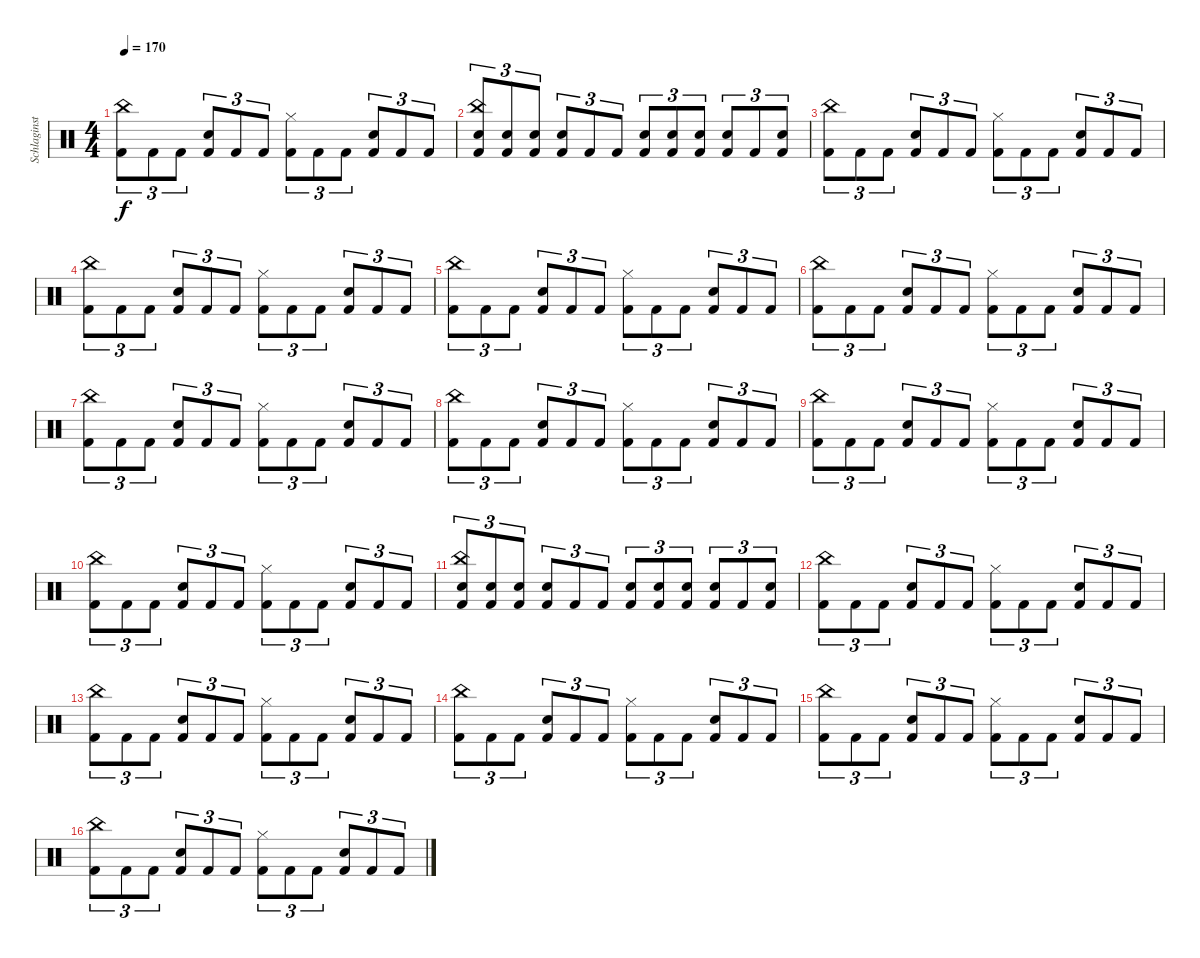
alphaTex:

\track ("Schlaginstrumente - Auswahl" "Schlaginst") {instrument percussion}
\staff {score}
\articulation defaults
\ts (4 4)
\tempo 170
\clef neutral
\ks c
("Kick (hit) 2" "China (hit)").8{tu (3 2) dy f} "Kick (hit) 2".8{tu (3 2)} "Kick (hit) 2".8{tu (3 2)} ("Kick (hit) 2" "Snare (hit) 2").8{tu (3 2)} "Kick (hit) 2".8{tu (3 2)} "Kick (hit) 2".8{tu (3 2)} ("Kick (hit) 2" "Hi-Hat (closed)").8{tu (3 2)} "Kick (hit) 2".8{tu (3 2)} "Kick (hit) 2".8{tu (3 2)} ("Kick (hit) 2" "Snare (hit) 2").8{tu (3 2)} "Kick (hit) 2".8{tu (3 2)} "Kick (hit) 2".8{tu (3 2)} |
("Kick (hit) 2" "Snare (hit) 2" "China (hit)").8{tu (3 2)} ("Kick (hit) 2" "Snare (hit) 2").8{tu (3 2)} ("Kick (hit) 2" "Snare (hit) 2").8{tu (3 2)} ("Kick (hit) 2" "Snare (hit) 2").8{tu (3 2)} "Kick (hit) 2".8{tu (3 2)} "Kick (hit) 2".8{tu (3 2)} ("Kick (hit) 2" "Snare (hit) 2").8{tu (3 2)} ("Kick (hit) 2" "Snare (hit) 2").8{tu (3 2)} ("Kick (hit) 2" "Snare (hit) 2").8{tu (3 2)} ("Kick (hit) 2" "Snare (hit) 2").8{tu (3 2)} "Kick (hit) 2".8{tu (3 2)} ("Kick (hit) 2" "Snare (hit) 2").8{tu (3 2)} |
("Kick (hit) 2" "China (hit)").8{tu (3 2)} "Kick (hit) 2".8{tu (3 2)} "Kick (hit) 2".8{tu (3 2)} ("Kick (hit) 2" "Snare (hit) 2").8{tu (3 2)} "Kick (hit) 2".8{tu (3 2)} "Kick (hit) 2".8{tu (3 2)} ("Kick (hit) 2" "Hi-Hat (closed)").8{tu (3 2)} "Kick (hit) 2".8{tu (3 2)} "Kick (hit) 2".8{tu (3 2)} ("Kick (hit) 2" "Snare (hit) 2").8{tu (3 2)} "Kick (hit) 2".8{tu (3 2)} "Kick (hit) 2".8{tu (3 2)} |
("Kick (hit) 2" "China (hit)").8{tu (3 2)} "Kick (hit) 2".8{tu (3 2)} "Kick (hit) 2".8{tu (3 2)} ("Kick (hit) 2" "Snare (hit) 2").8{tu (3 2)} "Kick (hit) 2".8{tu (3 2)} "Kick (hit) 2".8{tu (3 2)} ("Kick (hit) 2" "Hi-Hat (closed)").8{tu (3 2)} "Kick (hit) 2".8{tu (3 2)} "Kick (hit) 2".8{tu (3 2)} ("Kick (hit) 2" "Snare (hit) 2").8{tu (3 2)} "Kick (hit) 2".8{tu (3 2)} "Kick (hit) 2".8{tu (3 2)} |
("Kick (hit) 2" "China (hit)").8{tu (3 2)} "Kick (hit) 2".8{tu (3 2)} "Kick (hit) 2".8{tu (3 2)} ("Kick (hit) 2" "Snare (hit) 2").8{tu (3 2)} "Kick (hit) 2".8{tu (3 2)} "Kick (hit) 2".8{tu (3 2)} ("Kick (hit) 2" "Hi-Hat (closed)").8{tu (3 2)} "Kick (hit) 2".8{tu (3 2)} "Kick (hit) 2".8{tu (3 2)} ("Kick (hit) 2" "Snare (hit) 2").8{tu (3 2)} "Kick (hit) 2".8{tu (3 2)} "Kick (hit) 2".8{tu (3 2)} |
("Kick (hit) 2" "China (hit)").8{tu (3 2)} "Kick (hit) 2".8{tu (3 2)} "Kick (hit) 2".8{tu (3 2)} ("Kick (hit) 2" "Snare (hit) 2").8{tu (3 2)} "Kick (hit) 2".8{tu (3 2)} "Kick (hit) 2".8{tu (3 2)} ("Kick (hit) 2" "Hi-Hat (closed)").8{tu (3 2)} "Kick (hit) 2".8{tu (3 2)} "Kick (hit) 2".8{tu (3 2)} ("Kick (hit) 2" "Snare (hit) 2").8{tu (3 2)} "Kick (hit) 2".8{tu (3 2)} "Kick (hit) 2".8{tu (3 2)} |
("Kick (hit) 2" "China (hit)").8{tu (3 2)} "Kick (hit) 2".8{tu (3 2)} "Kick (hit) 2".8{tu (3 2)} ("Kick (hit) 2" "Snare (hit) 2").8{tu (3 2)} "Kick (hit) 2".8{tu (3 2)} "Kick (hit) 2".8{tu (3 2)} ("Kick (hit) 2" "Hi-Hat (closed)").8{tu (3 2)} "Kick (hit) 2".8{tu (3 2)} "Kick (hit) 2".8{tu (3 2)} ("Kick (hit) 2" "Snare (hit) 2").8{tu (3 2)} "Kick (hit) 2".8{tu (3 2)} "Kick (hit) 2".8{tu (3 2)} |
("Kick (hit) 2" "China (hit)").8{tu (3 2)} "Kick (hit) 2".8{tu (3 2)} "Kick (hit) 2".8{tu (3 2)} ("Kick (hit) 2" "Snare (hit) 2").8{tu (3 2)} "Kick (hit) 2".8{tu (3 2)} "Kick (hit) 2".8{tu (3 2)} ("Kick (hit) 2" "Hi-Hat (closed)").8{tu (3 2)} "Kick (hit) 2".8{tu (3 2)} "Kick (hit) 2".8{tu (3 2)} ("Kick (hit) 2" "Snare (hit) 2").8{tu (3 2)} "Kick (hit) 2".8{tu (3 2)} "Kick (hit) 2".8{tu (3 2)} |
("Kick (hit) 2" "China (hit)").8{tu (3 2)} "Kick (hit) 2".8{tu (3 2)} "Kick (hit) 2".8{tu (3 2)} ("Kick (hit) 2" "Snare (hit) 2").8{tu (3 2)} "Kick (hit) 2".8{tu (3 2)} "Kick (hit) 2".8{tu (3 2)} ("Kick (hit) 2" "Hi-Hat (closed)").8{tu (3 2)} "Kick (hit) 2".8{tu (3 2)} "Kick (hit) 2".8{tu (3 2)} ("Kick (hit) 2" "Snare (hit) 2").8{tu (3 2)} "Kick (hit) 2".8{tu (3 2)} "Kick (hit) 2".8{tu (3 2)} |
("Kick (hit) 2" "China (hit)").8{tu (3 2)} "Kick (hit) 2".8{tu (3 2)} "Kick (hit) 2".8{tu (3 2)} ("Kick (hit) 2" "Snare (hit) 2").8{tu (3 2)} "Kick (hit) 2".8{tu (3 2)} "Kick (hit) 2".8{tu (3 2)} ("Kick (hit) 2" "Hi-Hat (closed)").8{tu (3 2)} "Kick (hit) 2".8{tu (3 2)} "Kick (hit) 2".8{tu (3 2)} ("Kick (hit) 2" "Snare (hit) 2").8{tu (3 2)} "Kick (hit) 2".8{tu (3 2)} "Kick (hit) 2".8{tu (3 2)} |
("Kick (hit) 2" "Snare (hit) 2" "China (hit)").8{tu (3 2)} ("Kick (hit) 2" "Snare (hit) 2").8{tu (3 2)} ("Kick (hit) 2" "Snare (hit) 2").8{tu (3 2)} ("Kick (hit) 2" "Snare (hit) 2").8{tu (3 2)} "Kick (hit) 2".8{tu (3 2)} "Kick (hit) 2".8{tu (3 2)} ("Kick (hit) 2" "Snare (hit) 2").8{tu (3 2)} ("Kick (hit) 2" "Snare (hit) 2").8{tu (3 2)} ("Kick (hit) 2" "Snare (hit) 2").8{tu (3 2)} ("Kick (hit) 2" "Snare (hit) 2").8{tu (3 2)} "Kick (hit) 2".8{tu (3 2)} ("Kick (hit) 2" "Snare (hit) 2").8{tu (3 2)} |
("Kick (hit) 2" "China (hit)").8{tu (3 2)} "Kick (hit) 2".8{tu (3 2)} "Kick (hit) 2".8{tu (3 2)} ("Kick (hit) 2" "Snare (hit) 2").8{tu (3 2)} "Kick (hit) 2".8{tu (3 2)} "Kick (hit) 2".8{tu (3 2)} ("Kick (hit) 2" "Hi-Hat (closed)").8{tu (3 2)} "Kick (hit) 2".8{tu (3 2)} "Kick (hit) 2".8{tu (3 2)} ("Kick (hit) 2" "Snare (hit) 2").8{tu (3 2)} "Kick (hit) 2".8{tu (3 2)} "Kick (hit) 2".8{tu (3 2)} |
("Kick (hit) 2" "China (hit)").8{tu (3 2)} "Kick (hit) 2".8{tu (3 2)} "Kick (hit) 2".8{tu (3 2)} ("Kick (hit) 2" "Snare (hit) 2").8{tu (3 2)} "Kick (hit) 2".8{tu (3 2)} "Kick (hit) 2".8{tu (3 2)} ("Kick (hit) 2" "Hi-Hat (closed)").8{tu (3 2)} "Kick (hit) 2".8{tu (3 2)} "Kick (hit) 2".8{tu (3 2)} ("Kick (hit) 2" "Snare (hit) 2").8{tu (3 2)} "Kick (hit) 2".8{tu (3 2)} "Kick (hit) 2".8{tu (3 2)} |
("Kick (hit) 2" "China (hit)").8{tu (3 2)} "Kick (hit) 2".8{tu (3 2)} "Kick (hit) 2".8{tu (3 2)} ("Kick (hit) 2" "Snare (hit) 2").8{tu (3 2)} "Kick (hit) 2".8{tu (3 2)} "Kick (hit) 2".8{tu (3 2)} ("Kick (hit) 2" "Hi-Hat (closed)").8{tu (3 2)} "Kick (hit) 2".8{tu (3 2)} "Kick (hit) 2".8{tu (3 2)} ("Kick (hit) 2" "Snare (hit) 2").8{tu (3 2)} "Kick (hit) 2".8{tu (3 2)} "Kick (hit) 2".8{tu (3 2)} |
("Kick (hit) 2" "China (hit)").8{tu (3 2)} "Kick (hit) 2".8{tu (3 2)} "Kick (hit) 2".8{tu (3 2)} ("Kick (hit) 2" "Snare (hit) 2").8{tu (3 2)} "Kick (hit) 2".8{tu (3 2)} "Kick (hit) 2".8{tu (3 2)} ("Kick (hit) 2" "Hi-Hat (closed)").8{tu (3 2)} "Kick (hit) 2".8{tu (3 2)} "Kick (hit) 2".8{tu (3 2)} ("Kick (hit) 2" "Snare (hit) 2").8{tu (3 2)} "Kick (hit) 2".8{tu (3 2)} "Kick (hit) 2".8{tu (3 2)} |
("Kick (hit) 2" "China (hit)").8{tu (3 2)} "Kick (hit) 2".8{tu (3 2)} "Kick (hit) 2".8{tu (3 2)} ("Kick (hit) 2" "Snare (hit) 2").8{tu (3 2)} "Kick (hit) 2".8{tu (3 2)} "Kick (hit) 2".8{tu (3 2)} ("Kick (hit) 2" "Hi-Hat (closed)").8{tu (3 2)} "Kick (hit) 2".8{tu (3 2)} "Kick (hit) 2".8{tu (3 2)} ("Kick (hit) 2" "Snare (hit) 2").8{tu (3 2)} "Kick (hit) 2".8{tu (3 2)} "Kick (hit) 2".8{tu (3 2)}
